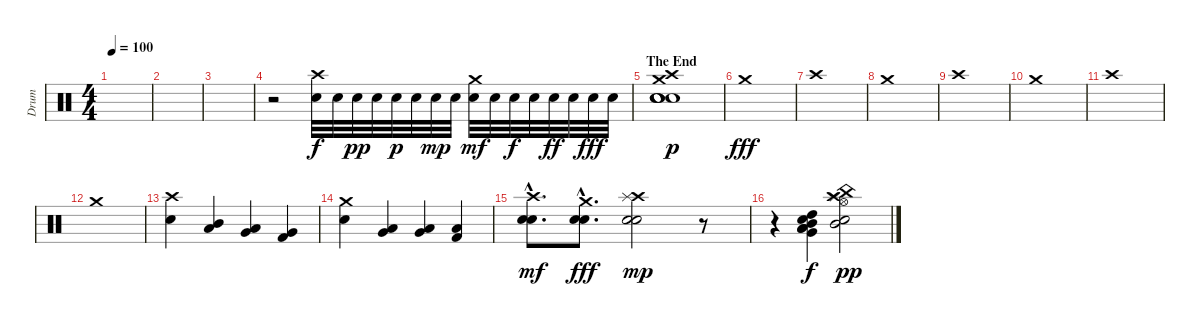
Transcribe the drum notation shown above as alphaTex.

\track ("Drum" "Drum") {instrument percussion}
\staff {score}
\articulation defaults
\ts (4 4)
\tempo 100
\clef neutral
\ks c
|
|
|
r.2 ("Crash high (hit)" "Snare (hit) 2").32 "Snare (hit) 2".32 "Snare (hit) 2".32{dy pp} "Snare (hit) 2".32 "Snare (hit) 2".32{dy p} "Snare (hit) 2".32 "Snare (hit) 2".32{dy mp} "Snare (hit) 2".32 ("Crash medium (hit)" "Snare (hit) 2").32{dy mf} "Snare (hit) 2".32 "Snare (hit) 2".32{dy f} "Snare (hit) 2".32 "Snare (hit) 2".32{dy ff} "Snare (hit) 2".32 "Snare (hit) 2".32{dy fff} "Snare (hit) 2".32 |
\section ("" "The End")
("Crash medium (hit)" "Snare (hit) 2" "Crash high (hit)" "Snare (hit) 2" "Snare (hit) 2" "Snare (hit) 2").1{bd 480 dy p} |
"Crash medium (hit)".1{dy fff balance 0} |
"Crash high (hit)".1{balance 16} |
"Crash medium (hit)".1{balance 0} |
"Crash high (hit)".1{balance 16} |
"Crash medium (hit)".1{balance 0} |
"Crash high (hit)".1{balance 16} |
"Crash medium (hit)".1{balance 0} |
("Snare (hit) 2" "Crash high (hit)").4{balance 5} ("Mid Tom (hit)" "Low Tom (hit)").4{bd 480} ("Low Tom (hit)" "Very Low Tom (hit)").4{bd 480} ("Very Low Tom (hit)" "Kick (hit) 2").4{bd 480} |
("Snare (hit) 2" "Crash medium (hit)").4 ("Low Tom (hit)" "Very Low Tom (hit)").4{bd 480} ("Very Low Tom (hit)" "Low Floor Tom (hit)").4{bd 480} ("Low Floor Tom (hit)" "Kick (hit) 2").4{bd 480} |
("Snare (hit) 2"{hac} "Snare (hit) 2"{hac} "Crash high (hit)"{hac}).8{d bd 480 dy mf} ("Snare (hit) 2"{hac} "Snare (hit) 2"{hac} "Crash medium (hit)"{hac}).8{d bd 480 dy fff} ("Snare (hit) 2" "Snare (hit) 2" "Crash high (hit)" "Splash (hit)").2{bd 480 dy mp} r.8 |
r.4 ("Snare (hit) 2" "High Tom (hit)" "Mid Tom (hit)" "Low Tom (hit)" "Very Low Tom (hit)" "Low Floor Tom (hit)").4{bu 480 dy f} ("Snare (hit) 2" "Mid Tom (hit)" "Crash high (hit)" "Hi-Hat (open)" "Splash (hit)" "China (hit)").2{dy pp}
